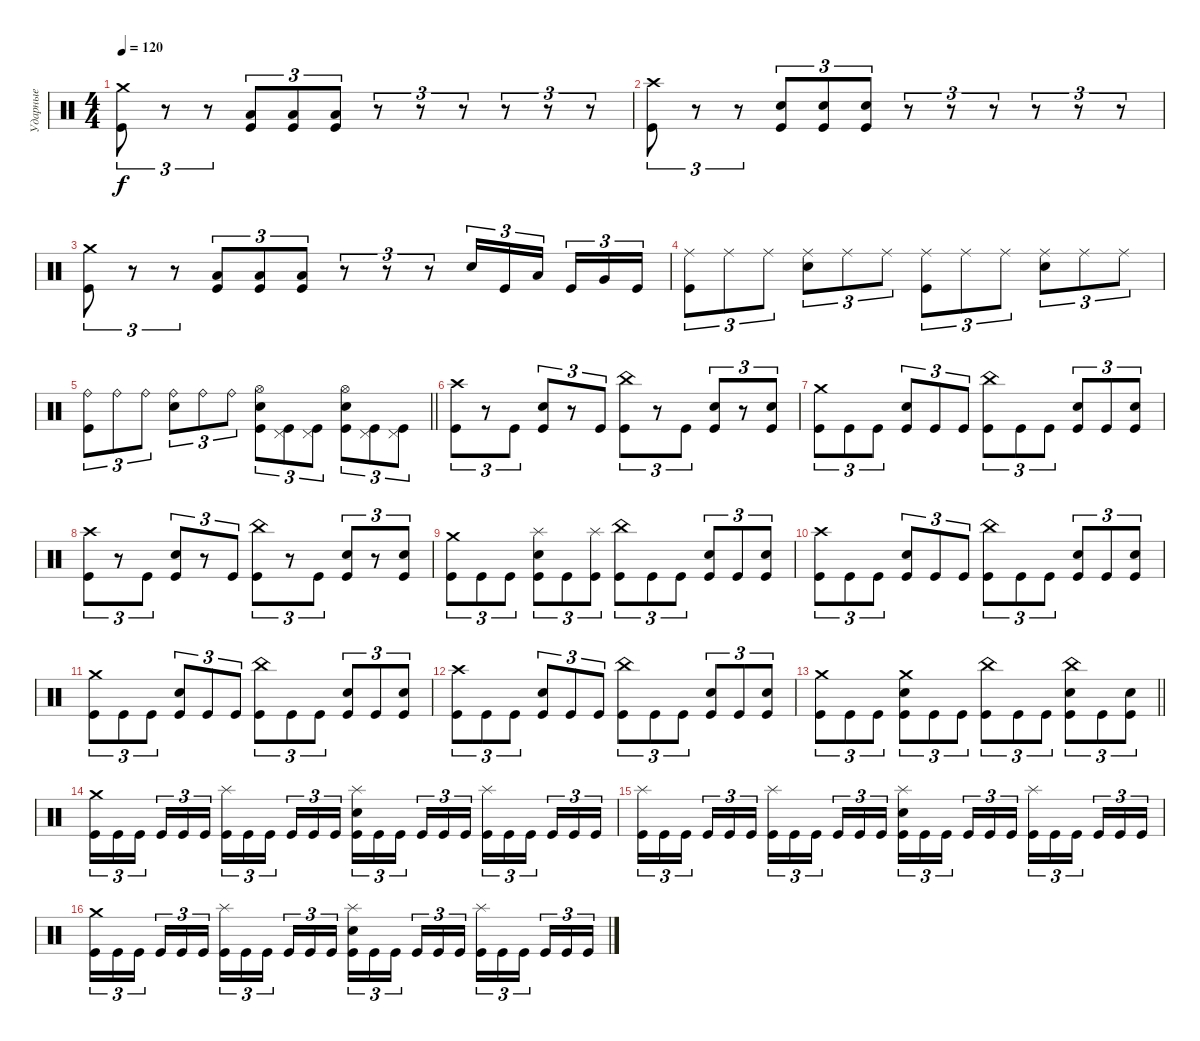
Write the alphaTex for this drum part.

\track ("Ударные" "Ударные") {instrument percussion}
\staff {score}
\articulation defaults
\ts (4 4)
\tempo 120
\clef neutral
\ks c
("Crash medium (hit)" "Kick (hit)").8{tu (3 2) dy f} r.8{tu (3 2)} r.8{tu (3 2)} ("Low Floor Tom (hit)" "Kick (hit)").8{tu (3 2)} ("Low Floor Tom (hit)" "Kick (hit)").8{tu (3 2)} ("Low Floor Tom (hit)" "Kick (hit)").8{tu (3 2)} r.8{tu (3 2)} r.8{tu (3 2)} r.8{tu (3 2)} r.8{tu (3 2)} r.8{tu (3 2)} r.8{tu (3 2)} |
("Crash high (hit)" "Kick (hit)").8{tu (3 2)} r.8{tu (3 2)} r.8{tu (3 2)} ("Electric Snare (hit)" "Kick (hit)").8{tu (3 2)} ("Electric Snare (hit)" "Kick (hit)").8{tu (3 2)} ("Electric Snare (hit)" "Kick (hit)").8{tu (3 2)} r.8{tu (3 2)} r.8{tu (3 2)} r.8{tu (3 2)} r.8{tu (3 2)} r.8{tu (3 2)} r.8{tu (3 2)} |
("Crash medium (hit)" "Kick (hit)").8{tu (3 2)} r.8{tu (3 2)} r.8{tu (3 2)} ("Low Floor Tom (hit)" "Kick (hit)").8{tu (3 2)} ("Low Floor Tom (hit)" "Kick (hit)").8{tu (3 2)} ("Low Floor Tom (hit)" "Kick (hit)").8{tu (3 2)} r.8{tu (3 2)} r.8{tu (3 2)} r.8{tu (3 2)} "Electric Snare (hit)".16{tu (3 2)} "Kick (hit)".16{tu (3 2)} "Low Tom (hit)".16{tu (3 2) beam splitsecondary} "Kick (hit)".16{tu (3 2)} "Very Low Tom (hit)".16{tu (3 2)} "Kick (hit)".16{tu (3 2)} |
("Ride (middle)" "Kick (hit)").8{tu (3 2)} "Ride (middle)".8{tu (3 2)} "Ride (middle)".8{tu (3 2)} ("Ride (middle)" "Electric Snare (hit)").8{tu (3 2)} "Ride (middle)".8{tu (3 2)} "Ride (middle)".8{tu (3 2)} ("Ride (middle)" "Kick (hit)").8{tu (3 2)} "Ride (middle)".8{tu (3 2)} "Ride (middle)".8{tu (3 2)} ("Ride (middle)" "Electric Snare (hit)").8{tu (3 2)} "Ride (middle)".8{tu (3 2)} "Ride (middle)".8{tu (3 2)} |
\barLineRight lightlight
("Ride (bell)" "Kick (hit)").8{tu (3 2)} "Ride (bell)".8{tu (3 2)} "Ride (bell)".8{tu (3 2)} ("Ride (bell)" "Electric Snare (hit)").8{tu (3 2)} "Ride (bell)".8{tu (3 2)} "Ride (bell)".8{tu (3 2)} ("Electric Snare (hit)" "Kick (hit)" "Hi-Hat (open)").8{tu (3 2)} ("Kick (hit)" "Pedal Hi-Hat (hit)").8{tu (3 2)} ("Kick (hit)" "Pedal Hi-Hat (hit)").8{tu (3 2)} ("Electric Snare (hit)" "Kick (hit)" "Hi-Hat (open)").8{tu (3 2)} ("Kick (hit)" "Pedal Hi-Hat (hit)").8{tu (3 2)} ("Kick (hit)" "Pedal Hi-Hat (hit)").8{tu (3 2)} |
\section ("" " ")
("Kick (hit)" "Crash high (hit)").8{tu (3 2)} r.8{tu (3 2)} "Kick (hit)".8{tu (3 2)} ("Kick (hit)" "Electric Snare (hit)").8{tu (3 2)} r.8{tu (3 2)} "Kick (hit)".8{tu (3 2)} ("Kick (hit)" "China (hit)").8{tu (3 2)} r.8{tu (3 2)} "Kick (hit)".8{tu (3 2)} ("Kick (hit)" "Electric Snare (hit)").8{tu (3 2)} r.8{tu (3 2)} ("Kick (hit)" "Electric Snare (hit)").8{tu (3 2)} |
("Kick (hit)" "Crash medium (hit)").8{tu (3 2)} "Kick (hit)".8{tu (3 2)} "Kick (hit)".8{tu (3 2)} ("Kick (hit)" "Electric Snare (hit)").8{tu (3 2)} "Kick (hit)".8{tu (3 2)} "Kick (hit)".8{tu (3 2)} ("Kick (hit)" "China (hit)").8{tu (3 2)} "Kick (hit)".8{tu (3 2)} "Kick (hit)".8{tu (3 2)} ("Kick (hit)" "Electric Snare (hit)").8{tu (3 2)} "Kick (hit)".8{tu (3 2)} ("Kick (hit)" "Electric Snare (hit)").8{tu (3 2)} |
("Kick (hit)" "Crash high (hit)").8{tu (3 2)} r.8{tu (3 2)} "Kick (hit)".8{tu (3 2)} ("Kick (hit)" "Electric Snare (hit)").8{tu (3 2)} r.8{tu (3 2)} "Kick (hit)".8{tu (3 2)} ("Kick (hit)" "China (hit)").8{tu (3 2)} r.8{tu (3 2)} "Kick (hit)".8{tu (3 2)} ("Kick (hit)" "Electric Snare (hit)").8{tu (3 2)} r.8{tu (3 2)} ("Kick (hit)" "Electric Snare (hit)").8{tu (3 2)} |
("Kick (hit)" "Crash medium (hit)").8{tu (3 2)} "Kick (hit)".8{tu (3 2)} "Kick (hit)".8{tu (3 2)} ("Kick (hit)" "Electric Snare (hit)" "Splash (hit)").8{tu (3 2)} "Kick (hit)".8{tu (3 2)} ("Kick (hit)" "Splash (hit)").8{tu (3 2)} ("Kick (hit)" "China (hit)").8{tu (3 2)} "Kick (hit)".8{tu (3 2)} "Kick (hit)".8{tu (3 2)} ("Kick (hit)" "Electric Snare (hit)").8{tu (3 2)} "Kick (hit)".8{tu (3 2)} ("Kick (hit)" "Electric Snare (hit)").8{tu (3 2)} |
("Kick (hit)" "Crash high (hit)").8{tu (3 2)} "Kick (hit)".8{tu (3 2)} "Kick (hit)".8{tu (3 2)} ("Kick (hit)" "Electric Snare (hit)").8{tu (3 2)} "Kick (hit)".8{tu (3 2)} "Kick (hit)".8{tu (3 2)} ("Kick (hit)" "China (hit)").8{tu (3 2)} "Kick (hit)".8{tu (3 2)} "Kick (hit)".8{tu (3 2)} ("Kick (hit)" "Electric Snare (hit)").8{tu (3 2)} "Kick (hit)".8{tu (3 2)} ("Kick (hit)" "Electric Snare (hit)").8{tu (3 2)} |
("Kick (hit)" "Crash medium (hit)").8{tu (3 2)} "Kick (hit)".8{tu (3 2)} "Kick (hit)".8{tu (3 2)} ("Kick (hit)" "Electric Snare (hit)").8{tu (3 2)} "Kick (hit)".8{tu (3 2)} "Kick (hit)".8{tu (3 2)} ("Kick (hit)" "China (hit)").8{tu (3 2)} "Kick (hit)".8{tu (3 2)} "Kick (hit)".8{tu (3 2)} ("Kick (hit)" "Electric Snare (hit)").8{tu (3 2)} "Kick (hit)".8{tu (3 2)} ("Kick (hit)" "Electric Snare (hit)").8{tu (3 2)} |
("Kick (hit)" "Crash high (hit)").8{tu (3 2)} "Kick (hit)".8{tu (3 2)} "Kick (hit)".8{tu (3 2)} ("Kick (hit)" "Electric Snare (hit)").8{tu (3 2)} "Kick (hit)".8{tu (3 2)} "Kick (hit)".8{tu (3 2)} ("Kick (hit)" "China (hit)").8{tu (3 2)} "Kick (hit)".8{tu (3 2)} "Kick (hit)".8{tu (3 2)} ("Kick (hit)" "Electric Snare (hit)").8{tu (3 2)} "Kick (hit)".8{tu (3 2)} ("Kick (hit)" "Electric Snare (hit)").8{tu (3 2)} |
\barLineRight lightlight
("Kick (hit)" "Crash medium (hit)").8{tu (3 2)} "Kick (hit)".8{tu (3 2)} "Kick (hit)".8{tu (3 2)} ("Kick (hit)" "Electric Snare (hit)" "Crash medium (hit)").8{tu (3 2)} "Kick (hit)".8{tu (3 2)} "Kick (hit)".8{tu (3 2)} ("Kick (hit)" "China (hit)").8{tu (3 2)} "Kick (hit)".8{tu (3 2)} "Kick (hit)".8{tu (3 2)} ("Kick (hit)" "Electric Snare (hit)" "China (hit)").8{tu (3 2)} "Kick (hit)".8{tu (3 2)} ("Kick (hit)" "Electric Snare (hit)").8{tu (3 2)} |
\section ("" " ")
("Kick (hit)" "Crash medium (hit)").16{tu (3 2)} "Kick (hit)".16{tu (3 2)} "Kick (hit)".16{tu (3 2) beam splitsecondary} "Kick (hit)".16{tu (3 2)} "Kick (hit)".16{tu (3 2)} "Kick (hit)".16{tu (3 2)} ("Kick (hit)" "Splash (hit)").16{tu (3 2)} "Kick (hit)".16{tu (3 2)} "Kick (hit)".16{tu (3 2) beam splitsecondary} "Kick (hit)".16{tu (3 2)} "Kick (hit)".16{tu (3 2)} "Kick (hit)".16{tu (3 2)} ("Kick (hit)" "Electric Snare (hit)" "Splash (hit)").16{tu (3 2)} "Kick (hit)".16{tu (3 2)} "Kick (hit)".16{tu (3 2) beam splitsecondary} "Kick (hit)".16{tu (3 2)} "Kick (hit)".16{tu (3 2)} "Kick (hit)".16{tu (3 2)} ("Kick (hit)" "Splash (hit)").16{tu (3 2)} "Kick (hit)".16{tu (3 2)} "Kick (hit)".16{tu (3 2) beam splitsecondary} "Kick (hit)".16{tu (3 2)} "Kick (hit)".16{tu (3 2)} "Kick (hit)".16{tu (3 2)} |
("Kick (hit)" "Splash (hit)").16{tu (3 2)} "Kick (hit)".16{tu (3 2)} "Kick (hit)".16{tu (3 2) beam splitsecondary} "Kick (hit)".16{tu (3 2)} "Kick (hit)".16{tu (3 2)} "Kick (hit)".16{tu (3 2)} ("Kick (hit)" "Splash (hit)").16{tu (3 2)} "Kick (hit)".16{tu (3 2)} "Kick (hit)".16{tu (3 2) beam splitsecondary} "Kick (hit)".16{tu (3 2)} "Kick (hit)".16{tu (3 2)} "Kick (hit)".16{tu (3 2)} ("Kick (hit)" "Electric Snare (hit)" "Splash (hit)").16{tu (3 2)} "Kick (hit)".16{tu (3 2)} "Kick (hit)".16{tu (3 2) beam splitsecondary} "Kick (hit)".16{tu (3 2)} "Kick (hit)".16{tu (3 2)} "Kick (hit)".16{tu (3 2)} ("Kick (hit)" "Splash (hit)").16{tu (3 2)} "Kick (hit)".16{tu (3 2)} "Kick (hit)".16{tu (3 2) beam splitsecondary} "Kick (hit)".16{tu (3 2)} "Kick (hit)".16{tu (3 2)} "Kick (hit)".16{tu (3 2)} |
("Kick (hit)" "Crash medium (hit)").16{tu (3 2)} "Kick (hit)".16{tu (3 2)} "Kick (hit)".16{tu (3 2) beam splitsecondary} "Kick (hit)".16{tu (3 2)} "Kick (hit)".16{tu (3 2)} "Kick (hit)".16{tu (3 2)} ("Kick (hit)" "Splash (hit)").16{tu (3 2)} "Kick (hit)".16{tu (3 2)} "Kick (hit)".16{tu (3 2) beam splitsecondary} "Kick (hit)".16{tu (3 2)} "Kick (hit)".16{tu (3 2)} "Kick (hit)".16{tu (3 2)} ("Kick (hit)" "Electric Snare (hit)" "Splash (hit)").16{tu (3 2)} "Kick (hit)".16{tu (3 2)} "Kick (hit)".16{tu (3 2) beam splitsecondary} "Kick (hit)".16{tu (3 2)} "Kick (hit)".16{tu (3 2)} "Kick (hit)".16{tu (3 2)} ("Kick (hit)" "Splash (hit)").16{tu (3 2)} "Kick (hit)".16{tu (3 2)} "Kick (hit)".16{tu (3 2) beam splitsecondary} "Kick (hit)".16{tu (3 2)} "Kick (hit)".16{tu (3 2)} "Kick (hit)".16{tu (3 2)}
